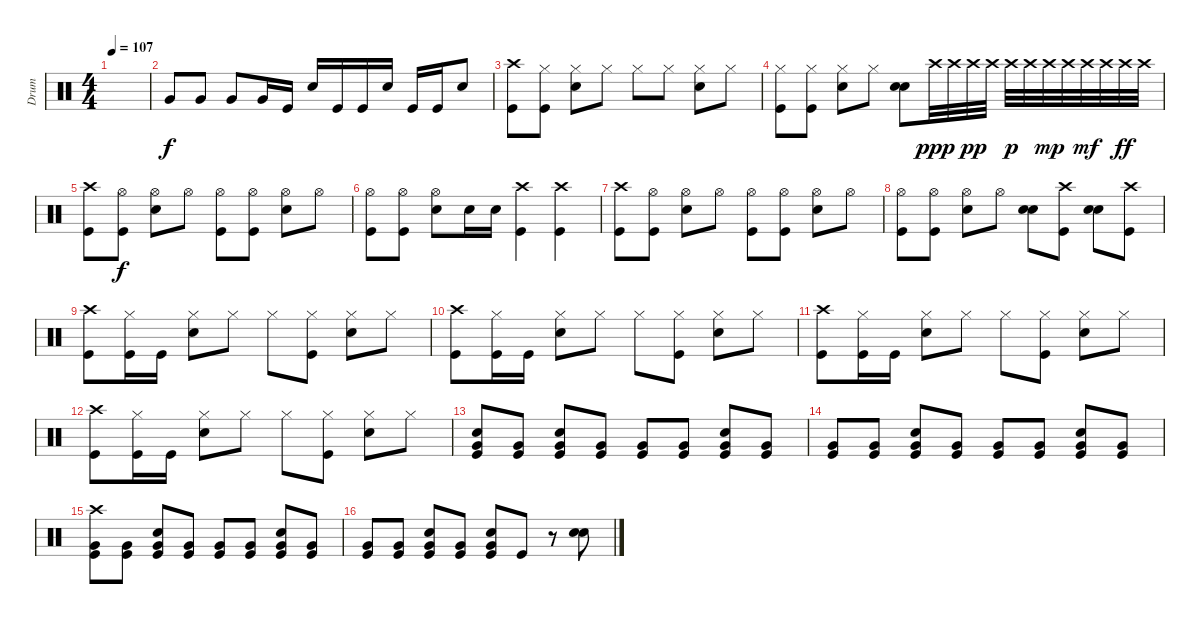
\track ("Drum" "Drum") {instrument percussion}
\staff {score}
\articulation defaults
\ts (4 4)
\tempo 107
\clef neutral
\ks c
|
"Very Low Tom (hit)".8 "Very Low Tom (hit)".8 "Very Low Tom (hit)".8 "Very Low Tom (hit)".16 "Kick (hit)".16 "Snare (hit) 2".16 "Kick (hit)".16 "Kick (hit)".16 "Snare (hit) 2".16 "Kick (hit)".16 "Kick (hit)".16 "Snare (hit) 2".8 |
("Kick (hit)" "Crash high (hit)").8 ("Kick (hit)" "Hi-Hat (closed)").8 ("Hi-Hat (closed)" "Snare (hit) 2").8 "Hi-Hat (closed)".8 "Hi-Hat (closed)".8 "Hi-Hat (closed)".8 ("Hi-Hat (closed)" "Snare (hit) 2").8 "Hi-Hat (closed)".8 |
("Kick (hit)" "Hi-Hat (closed)").8 ("Kick (hit)" "Hi-Hat (closed)").8 ("Hi-Hat (closed)" "Snare (hit) 2").8 "Hi-Hat (closed)".8 ("Snare (hit) 2" "Snare (hit) 2").8 "Crash high (hit)".32{dy ppp} "Crash high (hit)".32 "Crash high (hit)".32{dy pp} "Crash high (hit)".32 "Crash high (hit)".32{dy p} "Crash high (hit)".32 "Crash high (hit)".32{dy mp} "Crash high (hit)".32 "Crash high (hit)".32{dy mf} "Crash high (hit)".32 "Crash high (hit)".32{dy ff} "Crash high (hit)".32 |
("Kick (hit)" "Crash high (hit)").8 ("Hi-Hat (open)" "Kick (hit)").8{dy f} ("Hi-Hat (open)" "Snare (hit) 2").8 "Hi-Hat (open)".8 ("Hi-Hat (open)" "Kick (hit)").8 ("Hi-Hat (open)" "Kick (hit)").8 ("Hi-Hat (open)" "Snare (hit) 2").8 "Hi-Hat (open)".8 |
("Hi-Hat (open)" "Kick (hit)").8 ("Hi-Hat (open)" "Kick (hit)").8 ("Hi-Hat (open)" "Snare (hit) 2").8 "Snare (hit) 2".16 "Snare (hit) 2".16 ("Crash high (hit)" "Kick (hit)").4 ("Crash high (hit)" "Kick (hit)").4 |
("Crash high (hit)" "Kick (hit)").8 ("Hi-Hat (open)" "Kick (hit)").8 ("Hi-Hat (open)" "Snare (hit) 2").8 "Hi-Hat (open)".8 ("Hi-Hat (open)" "Kick (hit)").8 ("Hi-Hat (open)" "Kick (hit)").8 ("Hi-Hat (open)" "Snare (hit) 2").8 "Hi-Hat (open)".8 |
("Hi-Hat (open)" "Kick (hit)").8 ("Hi-Hat (open)" "Kick (hit)").8 ("Hi-Hat (open)" "Snare (hit) 2").8 "Hi-Hat (open)".8 ("Snare (hit) 2" "Snare (hit) 2").8 ("Crash high (hit)" "Kick (hit)").8 ("Snare (hit) 2" "Snare (hit) 2").8 ("Crash high (hit)" "Kick (hit)").8 |
("Kick (hit)" "Crash high (hit)").8 ("Kick (hit)" "Hi-Hat (closed)").16 "Kick (hit)".16 ("Hi-Hat (closed)" "Snare (hit) 2").8 "Hi-Hat (closed)".8 "Hi-Hat (closed)".8 ("Hi-Hat (closed)" "Kick (hit)").8 ("Hi-Hat (closed)" "Snare (hit) 2").8 "Hi-Hat (closed)".8 |
("Kick (hit)" "Crash high (hit)").8 ("Kick (hit)" "Hi-Hat (closed)").16 "Kick (hit)".16 ("Hi-Hat (closed)" "Snare (hit) 2").8 "Hi-Hat (closed)".8 "Hi-Hat (closed)".8 ("Hi-Hat (closed)" "Kick (hit)").8 ("Hi-Hat (closed)" "Snare (hit) 2").8 "Hi-Hat (closed)".8 |
("Kick (hit)" "Crash high (hit)").8 ("Kick (hit)" "Hi-Hat (closed)").16 "Kick (hit)".16 ("Hi-Hat (closed)" "Snare (hit) 2").8 "Hi-Hat (closed)".8 "Hi-Hat (closed)".8 ("Hi-Hat (closed)" "Kick (hit)").8 ("Hi-Hat (closed)" "Snare (hit) 2").8 "Hi-Hat (closed)".8 |
("Kick (hit)" "Crash high (hit)").8 ("Kick (hit)" "Hi-Hat (closed)").16 "Kick (hit)".16 ("Hi-Hat (closed)" "Snare (hit) 2").8 "Hi-Hat (closed)".8 "Hi-Hat (closed)".8 ("Hi-Hat (closed)" "Kick (hit)").8 ("Hi-Hat (closed)" "Snare (hit) 2").8 "Hi-Hat (closed)".8 |
("Very Low Tom (hit)" "Kick (hit)" "Snare (hit) 2").8 ("Very Low Tom (hit)" "Kick (hit)").8 ("Very Low Tom (hit)" "Kick (hit)" "Snare (hit) 2").8 ("Very Low Tom (hit)" "Kick (hit)").8 ("Very Low Tom (hit)" "Kick (hit)").8 ("Very Low Tom (hit)" "Kick (hit)").8 ("Very Low Tom (hit)" "Kick (hit)" "Snare (hit) 2").8 ("Very Low Tom (hit)" "Kick (hit)").8 |
("Very Low Tom (hit)" "Kick (hit)").8 ("Very Low Tom (hit)" "Kick (hit)").8 ("Very Low Tom (hit)" "Kick (hit)" "Snare (hit) 2").8 ("Very Low Tom (hit)" "Kick (hit)").8 ("Very Low Tom (hit)" "Kick (hit)").8 ("Very Low Tom (hit)" "Kick (hit)").8 ("Very Low Tom (hit)" "Kick (hit)" "Snare (hit) 2").8 ("Very Low Tom (hit)" "Kick (hit)").8 |
("Very Low Tom (hit)" "Kick (hit)" "Crash high (hit)").8 ("Very Low Tom (hit)" "Kick (hit)").8 ("Very Low Tom (hit)" "Kick (hit)" "Snare (hit) 2").8 ("Very Low Tom (hit)" "Kick (hit)").8 ("Very Low Tom (hit)" "Kick (hit)").8 ("Very Low Tom (hit)" "Kick (hit)").8 ("Very Low Tom (hit)" "Kick (hit)" "Snare (hit) 2").8 ("Very Low Tom (hit)" "Kick (hit)").8 |
("Very Low Tom (hit)" "Kick (hit)").8 ("Very Low Tom (hit)" "Kick (hit)").8 ("Very Low Tom (hit)" "Kick (hit)" "Snare (hit) 2").8 ("Very Low Tom (hit)" "Kick (hit)").8 ("Very Low Tom (hit)" "Kick (hit)" "Snare (hit) 2").8 "Kick (hit)".8 r.8 ("Snare (hit) 2" "Snare (hit) 2").8
